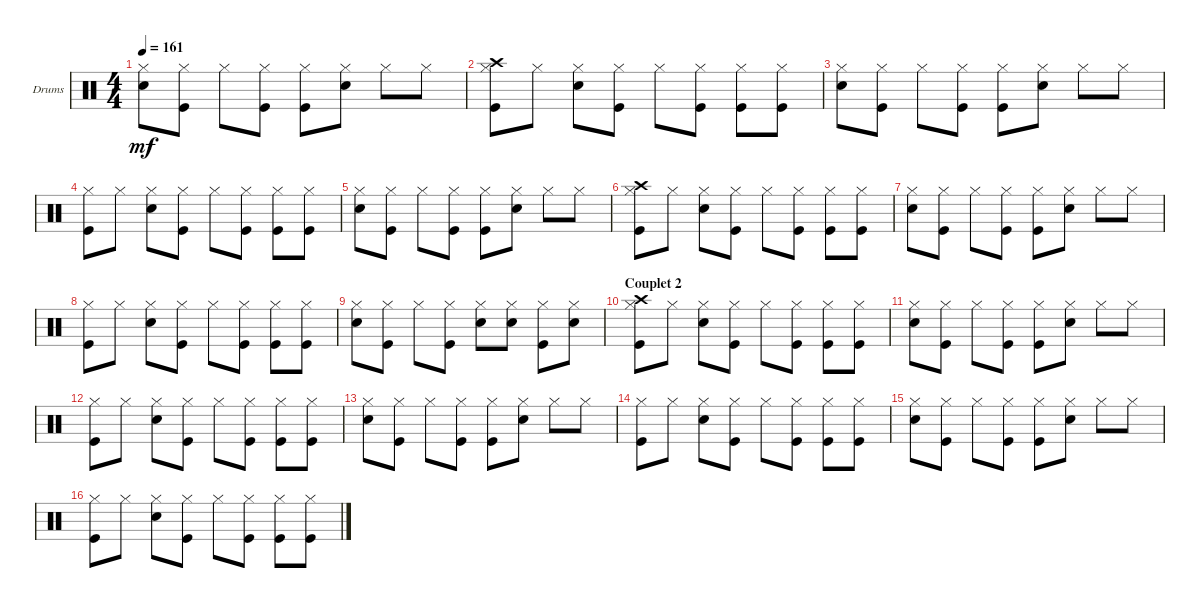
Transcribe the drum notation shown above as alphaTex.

\defaultSystemsLayout 4
\bracketExtendMode groupsimilarinstruments
\firstSystemTrackNameOrientation horizontal
\otherSystemsTrackNameOrientation horizontal
\chordDiagramsInScore
\track ("Drumkit" "Drums") {instrument percussion}
\staff {score}
\articulation defaults
\ts (4 4)
\tempo 161
\clef neutral
\ks c
("Hi-Hat (closed)" "Snare (hit) 2").8{dy mf} ("Hi-Hat (closed)" "Kick (hit)").8 "Hi-Hat (closed)".8 ("Hi-Hat (closed)" "Kick (hit)").8 ("Hi-Hat (closed)" "Kick (hit)").8 ("Hi-Hat (closed)" "Snare (hit) 2").8 "Hi-Hat (closed)".8 "Hi-Hat (closed)".8 |
("Hi-Hat (closed)" "Kick (hit)" "Crash high (hit)").8 "Hi-Hat (closed)".8 ("Hi-Hat (closed)" "Snare (hit) 2").8 ("Hi-Hat (closed)" "Kick (hit)").8 "Hi-Hat (closed)".8 ("Hi-Hat (closed)" "Kick (hit)").8 ("Hi-Hat (closed)" "Kick (hit)").8 ("Hi-Hat (closed)" "Kick (hit)").8 |
("Hi-Hat (closed)" "Snare (hit) 2").8 ("Hi-Hat (closed)" "Kick (hit)").8 "Hi-Hat (closed)".8 ("Hi-Hat (closed)" "Kick (hit)").8 ("Hi-Hat (closed)" "Kick (hit)").8 ("Hi-Hat (closed)" "Snare (hit) 2").8 "Hi-Hat (closed)".8 "Hi-Hat (closed)".8 |
("Hi-Hat (closed)" "Kick (hit)").8 "Hi-Hat (closed)".8 ("Hi-Hat (closed)" "Snare (hit) 2").8 ("Hi-Hat (closed)" "Kick (hit)").8 "Hi-Hat (closed)".8 ("Hi-Hat (closed)" "Kick (hit)").8 ("Hi-Hat (closed)" "Kick (hit)").8 ("Hi-Hat (closed)" "Kick (hit)").8 |
("Hi-Hat (closed)" "Snare (hit) 2").8 ("Hi-Hat (closed)" "Kick (hit)").8 "Hi-Hat (closed)".8 ("Hi-Hat (closed)" "Kick (hit)").8 ("Hi-Hat (closed)" "Kick (hit)").8 ("Hi-Hat (closed)" "Snare (hit) 2").8 "Hi-Hat (closed)".8 "Hi-Hat (closed)".8 |
("Hi-Hat (closed)" "Kick (hit)" "Crash high (hit)").8 "Hi-Hat (closed)".8 ("Hi-Hat (closed)" "Snare (hit) 2").8 ("Hi-Hat (closed)" "Kick (hit)").8 "Hi-Hat (closed)".8 ("Hi-Hat (closed)" "Kick (hit)").8 ("Hi-Hat (closed)" "Kick (hit)").8 ("Hi-Hat (closed)" "Kick (hit)").8 |
("Hi-Hat (closed)" "Snare (hit) 2").8 ("Hi-Hat (closed)" "Kick (hit)").8 "Hi-Hat (closed)".8 ("Hi-Hat (closed)" "Kick (hit)").8 ("Hi-Hat (closed)" "Kick (hit)").8 ("Hi-Hat (closed)" "Snare (hit) 2").8 "Hi-Hat (closed)".8 "Hi-Hat (closed)".8 |
("Hi-Hat (closed)" "Kick (hit)").8 "Hi-Hat (closed)".8 ("Hi-Hat (closed)" "Snare (hit) 2").8 ("Hi-Hat (closed)" "Kick (hit)").8 "Hi-Hat (closed)".8 ("Hi-Hat (closed)" "Kick (hit)").8 ("Hi-Hat (closed)" "Kick (hit)").8 ("Hi-Hat (closed)" "Kick (hit)").8 |
("Hi-Hat (closed)" "Snare (hit) 2").8 ("Hi-Hat (closed)" "Kick (hit)").8 "Hi-Hat (closed)".8 ("Hi-Hat (closed)" "Kick (hit)").8 ("Hi-Hat (closed)" "Snare (hit) 2").8 ("Hi-Hat (closed)" "Snare (hit) 2").8 ("Hi-Hat (closed)" "Kick (hit)").8 ("Hi-Hat (closed)" "Snare (hit) 2").8 |
\section ("" "Couplet 2")
("Hi-Hat (closed)" "Kick (hit)" "Crash high (hit)").8 "Hi-Hat (closed)".8 ("Hi-Hat (closed)" "Snare (hit) 2").8 ("Hi-Hat (closed)" "Kick (hit)").8 "Hi-Hat (closed)".8 ("Hi-Hat (closed)" "Kick (hit)").8 ("Hi-Hat (closed)" "Kick (hit)").8 ("Hi-Hat (closed)" "Kick (hit)").8 |
("Hi-Hat (closed)" "Snare (hit) 2").8 ("Hi-Hat (closed)" "Kick (hit)").8 "Hi-Hat (closed)".8 ("Hi-Hat (closed)" "Kick (hit)").8 ("Hi-Hat (closed)" "Kick (hit)").8 ("Hi-Hat (closed)" "Snare (hit) 2").8 "Hi-Hat (closed)".8 "Hi-Hat (closed)".8 |
("Hi-Hat (closed)" "Kick (hit)").8 "Hi-Hat (closed)".8 ("Hi-Hat (closed)" "Snare (hit) 2").8 ("Hi-Hat (closed)" "Kick (hit)").8 "Hi-Hat (closed)".8 ("Hi-Hat (closed)" "Kick (hit)").8 ("Hi-Hat (closed)" "Kick (hit)").8 ("Hi-Hat (closed)" "Kick (hit)").8 |
("Hi-Hat (closed)" "Snare (hit) 2").8 ("Hi-Hat (closed)" "Kick (hit)").8 "Hi-Hat (closed)".8 ("Hi-Hat (closed)" "Kick (hit)").8 ("Hi-Hat (closed)" "Kick (hit)").8 ("Hi-Hat (closed)" "Snare (hit) 2").8 "Hi-Hat (closed)".8 "Hi-Hat (closed)".8 |
("Hi-Hat (closed)" "Kick (hit)").8 "Hi-Hat (closed)".8 ("Hi-Hat (closed)" "Snare (hit) 2").8 ("Hi-Hat (closed)" "Kick (hit)").8 "Hi-Hat (closed)".8 ("Hi-Hat (closed)" "Kick (hit)").8 ("Hi-Hat (closed)" "Kick (hit)").8 ("Hi-Hat (closed)" "Kick (hit)").8 |
("Hi-Hat (closed)" "Snare (hit) 2").8 ("Hi-Hat (closed)" "Kick (hit)").8 "Hi-Hat (closed)".8 ("Hi-Hat (closed)" "Kick (hit)").8 ("Hi-Hat (closed)" "Kick (hit)").8 ("Hi-Hat (closed)" "Snare (hit) 2").8 "Hi-Hat (closed)".8 "Hi-Hat (closed)".8 |
("Hi-Hat (closed)" "Kick (hit)").8 "Hi-Hat (closed)".8 ("Hi-Hat (closed)" "Snare (hit) 2").8 ("Hi-Hat (closed)" "Kick (hit)").8 "Hi-Hat (closed)".8 ("Hi-Hat (closed)" "Kick (hit)").8 ("Hi-Hat (closed)" "Kick (hit)").8 ("Hi-Hat (closed)" "Kick (hit)").8
